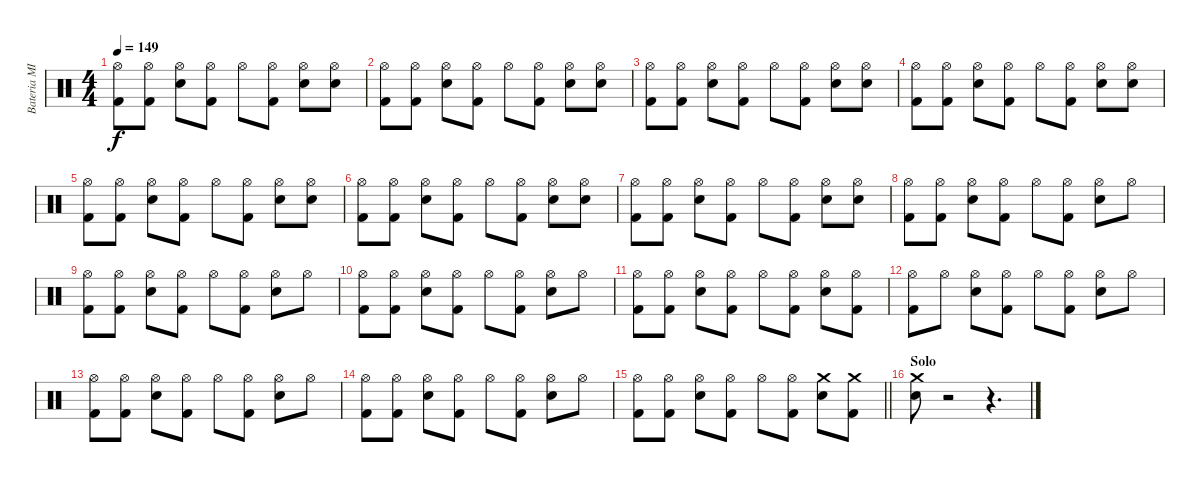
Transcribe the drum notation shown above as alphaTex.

\track ("Bateria MIDI" "Bateria MI") {instrument percussion}
\staff {score}
\articulation defaults
\ts (4 4)
\tempo 149
\clef neutral
\ks c
("Hi-Hat (open)" "Kick (hit) 2").8{dy f} ("Hi-Hat (open)" "Kick (hit) 2").8 ("Hi-Hat (open)" "Snare (hit) 2").8 ("Hi-Hat (open)" "Kick (hit) 2").8 "Hi-Hat (open)".8 ("Hi-Hat (open)" "Kick (hit) 2").8 ("Hi-Hat (open)" "Snare (hit) 2").8 ("Hi-Hat (open)" "Snare (hit) 2").8 |
("Hi-Hat (open)" "Kick (hit) 2").8 ("Hi-Hat (open)" "Kick (hit) 2").8 ("Hi-Hat (open)" "Snare (hit) 2").8 ("Hi-Hat (open)" "Kick (hit) 2").8 "Hi-Hat (open)".8 ("Hi-Hat (open)" "Kick (hit) 2").8 ("Hi-Hat (open)" "Snare (hit) 2").8 ("Hi-Hat (open)" "Snare (hit) 2").8 |
("Hi-Hat (open)" "Kick (hit) 2").8 ("Hi-Hat (open)" "Kick (hit) 2").8 ("Hi-Hat (open)" "Snare (hit) 2").8 ("Hi-Hat (open)" "Kick (hit) 2").8 "Hi-Hat (open)".8 ("Hi-Hat (open)" "Kick (hit) 2").8 ("Hi-Hat (open)" "Snare (hit) 2").8 ("Hi-Hat (open)" "Snare (hit) 2").8 |
("Hi-Hat (open)" "Kick (hit) 2").8 ("Hi-Hat (open)" "Kick (hit) 2").8 ("Hi-Hat (open)" "Snare (hit) 2").8 ("Hi-Hat (open)" "Kick (hit) 2").8 "Hi-Hat (open)".8 ("Hi-Hat (open)" "Kick (hit) 2").8 ("Hi-Hat (open)" "Snare (hit) 2").8 ("Hi-Hat (open)" "Snare (hit) 2").8 |
("Hi-Hat (open)" "Kick (hit) 2").8 ("Hi-Hat (open)" "Kick (hit) 2").8 ("Hi-Hat (open)" "Snare (hit) 2").8 ("Hi-Hat (open)" "Kick (hit) 2").8 "Hi-Hat (open)".8 ("Hi-Hat (open)" "Kick (hit) 2").8 ("Hi-Hat (open)" "Snare (hit) 2").8 ("Hi-Hat (open)" "Snare (hit) 2").8 |
("Hi-Hat (open)" "Kick (hit) 2").8 ("Hi-Hat (open)" "Kick (hit) 2").8 ("Hi-Hat (open)" "Snare (hit) 2").8 ("Hi-Hat (open)" "Kick (hit) 2").8 "Hi-Hat (open)".8 ("Hi-Hat (open)" "Kick (hit) 2").8 ("Hi-Hat (open)" "Snare (hit) 2").8 ("Hi-Hat (open)" "Snare (hit) 2").8 |
("Hi-Hat (open)" "Kick (hit) 2").8 ("Hi-Hat (open)" "Kick (hit) 2").8 ("Hi-Hat (open)" "Snare (hit) 2").8 ("Hi-Hat (open)" "Kick (hit) 2").8 "Hi-Hat (open)".8 ("Hi-Hat (open)" "Kick (hit) 2").8 ("Hi-Hat (open)" "Snare (hit) 2").8 ("Hi-Hat (open)" "Snare (hit) 2").8 |
("Hi-Hat (open)" "Kick (hit) 2").8 ("Hi-Hat (open)" "Kick (hit) 2").8 ("Hi-Hat (open)" "Snare (hit) 2").8 ("Hi-Hat (open)" "Kick (hit) 2").8 "Hi-Hat (open)".8 ("Hi-Hat (open)" "Kick (hit) 2").8 ("Hi-Hat (open)" "Snare (hit) 2").8 "Hi-Hat (open)".8 |
("Hi-Hat (open)" "Kick (hit) 2").8 ("Hi-Hat (open)" "Kick (hit) 2").8 ("Hi-Hat (open)" "Snare (hit) 2").8 ("Hi-Hat (open)" "Kick (hit) 2").8 "Hi-Hat (open)".8 ("Hi-Hat (open)" "Kick (hit) 2").8 ("Hi-Hat (open)" "Snare (hit) 2").8 "Hi-Hat (open)".8 |
("Hi-Hat (open)" "Kick (hit) 2").8 ("Hi-Hat (open)" "Kick (hit) 2").8 ("Hi-Hat (open)" "Snare (hit) 2").8 ("Hi-Hat (open)" "Kick (hit) 2").8 "Hi-Hat (open)".8 ("Hi-Hat (open)" "Kick (hit) 2").8 ("Hi-Hat (open)" "Snare (hit) 2").8 "Hi-Hat (open)".8 |
("Hi-Hat (open)" "Kick (hit) 2").8 ("Hi-Hat (open)" "Kick (hit) 2").8 ("Hi-Hat (open)" "Snare (hit) 2").8 ("Hi-Hat (open)" "Kick (hit) 2").8 "Hi-Hat (open)".8 ("Hi-Hat (open)" "Kick (hit) 2").8 ("Hi-Hat (open)" "Snare (hit) 2").8 ("Hi-Hat (open)" "Kick (hit) 2").8 |
("Hi-Hat (open)" "Kick (hit) 2").8 "Hi-Hat (open)".8 ("Hi-Hat (open)" "Snare (hit) 2").8 ("Hi-Hat (open)" "Kick (hit) 2").8 "Hi-Hat (open)".8 ("Hi-Hat (open)" "Kick (hit) 2").8 ("Hi-Hat (open)" "Snare (hit) 2").8 "Hi-Hat (open)".8 |
("Hi-Hat (open)" "Kick (hit) 2").8 ("Hi-Hat (open)" "Kick (hit) 2").8 ("Hi-Hat (open)" "Snare (hit) 2").8 ("Hi-Hat (open)" "Kick (hit) 2").8 "Hi-Hat (open)".8 ("Hi-Hat (open)" "Kick (hit) 2").8 ("Hi-Hat (open)" "Snare (hit) 2").8 "Hi-Hat (open)".8 |
("Hi-Hat (open)" "Kick (hit) 2").8 ("Hi-Hat (open)" "Kick (hit) 2").8 ("Hi-Hat (open)" "Snare (hit) 2").8 ("Hi-Hat (open)" "Kick (hit) 2").8 "Hi-Hat (open)".8 ("Hi-Hat (open)" "Kick (hit) 2").8 ("Hi-Hat (open)" "Snare (hit) 2").8 "Hi-Hat (open)".8 |
\barLineRight lightlight
("Hi-Hat (open)" "Kick (hit) 2").8 ("Hi-Hat (open)" "Kick (hit) 2").8 ("Hi-Hat (open)" "Snare (hit) 2").8 ("Hi-Hat (open)" "Kick (hit) 2").8 "Hi-Hat (open)".8 ("Hi-Hat (open)" "Kick (hit) 2").8 ("Crash medium (hit)" "Snare (hit) 2").8 ("Crash medium (hit)" "Kick (hit) 2").8 |
\section ("" "Solo")
("Crash medium (hit)" "Snare (hit) 2").8 r.2 r.4{d}
